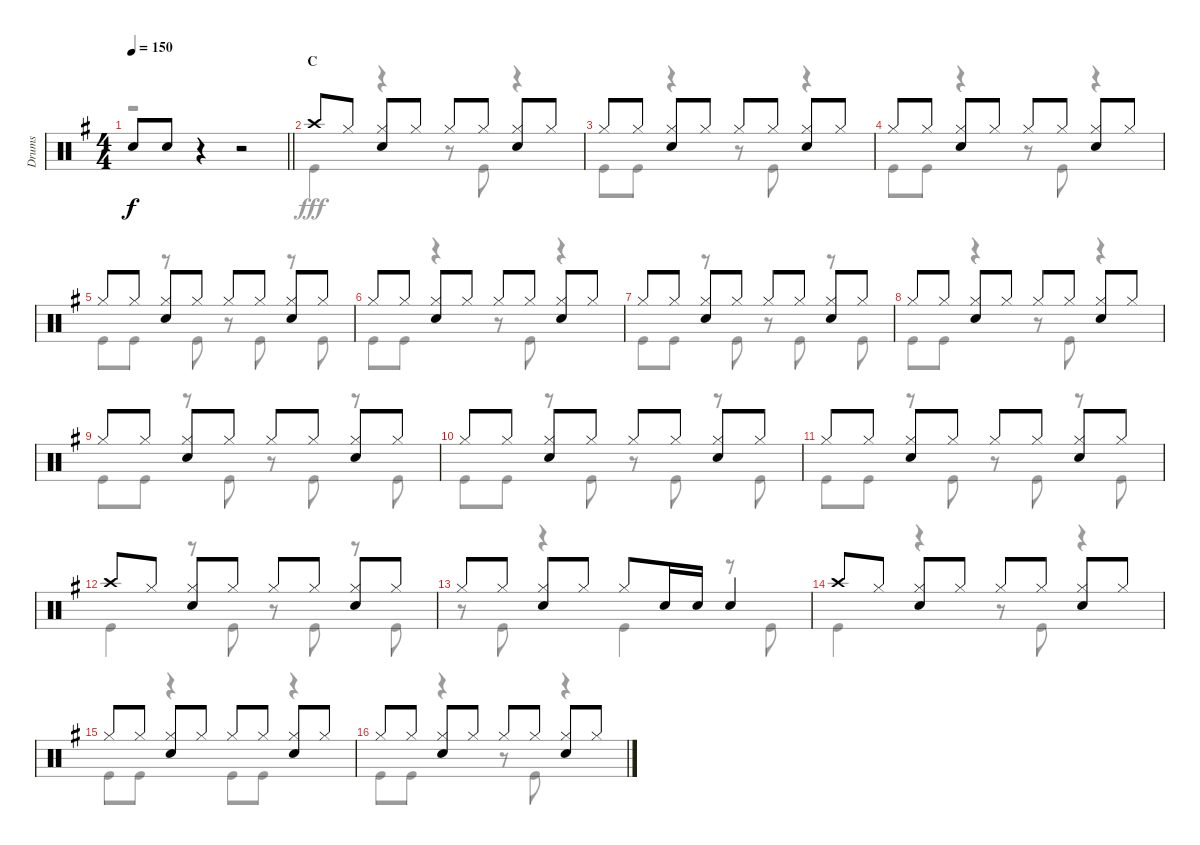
\track ("Drums" "Drums") {instrument percussion}
\staff {score}
\articulation defaults
\voice
\ts (4 4)
\tempo 150
\clef neutral
\barLineRight lightlight
\ks g "Snare (hit) 2".8{dy f} "Snare (hit) 2".8
r.4 r.2 |
\section ("" "C")
"Crash high (hit)".8 "Hi-Hat (closed)".8 ("Hi-Hat (closed)" "Snare (hit) 2").8 "Hi-Hat (closed)".8 "Hi-Hat (closed)".8 "Hi-Hat (closed)".8 ("Hi-Hat (closed)" "Snare (hit) 2").8 "Hi-Hat (closed)".8 |
"Hi-Hat (closed)".8 "Hi-Hat (closed)".8 ("Hi-Hat (closed)" "Snare (hit) 2").8 "Hi-Hat (closed)".8 "Hi-Hat (closed)".8 "Hi-Hat (closed)".8 ("Hi-Hat (closed)" "Snare (hit) 2").8 "Hi-Hat (closed)".8 |
"Hi-Hat (closed)".8 "Hi-Hat (closed)".8 ("Hi-Hat (closed)" "Snare (hit) 2").8 "Hi-Hat (closed)".8 "Hi-Hat (closed)".8 "Hi-Hat (closed)".8 ("Hi-Hat (closed)" "Snare (hit) 2").8 "Hi-Hat (closed)".8 |
"Hi-Hat (closed)".8 "Hi-Hat (closed)".8 ("Hi-Hat (closed)" "Snare (hit) 2").8 "Hi-Hat (closed)".8 "Hi-Hat (closed)".8 "Hi-Hat (closed)".8 ("Hi-Hat (closed)" "Snare (hit) 2").8 "Hi-Hat (closed)".8 |
"Hi-Hat (closed)".8 "Hi-Hat (closed)".8 ("Hi-Hat (closed)" "Snare (hit) 2").8 "Hi-Hat (closed)".8 "Hi-Hat (closed)".8 "Hi-Hat (closed)".8 ("Hi-Hat (closed)" "Snare (hit) 2").8 "Hi-Hat (closed)".8 |
"Hi-Hat (closed)".8 "Hi-Hat (closed)".8 ("Hi-Hat (closed)" "Snare (hit) 2").8 "Hi-Hat (closed)".8 "Hi-Hat (closed)".8 "Hi-Hat (closed)".8 ("Hi-Hat (closed)" "Snare (hit) 2").8 "Hi-Hat (closed)".8 |
"Hi-Hat (closed)".8 "Hi-Hat (closed)".8 ("Hi-Hat (closed)" "Snare (hit) 2").8 "Hi-Hat (closed)".8 "Hi-Hat (closed)".8 "Hi-Hat (closed)".8 ("Hi-Hat (closed)" "Snare (hit) 2").8 "Hi-Hat (closed)".8 |
"Hi-Hat (closed)".8 "Hi-Hat (closed)".8 ("Hi-Hat (closed)" "Snare (hit) 2").8 "Hi-Hat (closed)".8 "Hi-Hat (closed)".8 "Hi-Hat (closed)".8 ("Hi-Hat (closed)" "Snare (hit) 2").8 "Hi-Hat (closed)".8 |
"Hi-Hat (closed)".8 "Hi-Hat (closed)".8 ("Hi-Hat (closed)" "Snare (hit) 2").8 "Hi-Hat (closed)".8 "Hi-Hat (closed)".8 "Hi-Hat (closed)".8 ("Hi-Hat (closed)" "Snare (hit) 2").8 "Hi-Hat (closed)".8 |
"Hi-Hat (closed)".8 "Hi-Hat (closed)".8 ("Hi-Hat (closed)" "Snare (hit) 2").8 "Hi-Hat (closed)".8 "Hi-Hat (closed)".8 "Hi-Hat (closed)".8 ("Hi-Hat (closed)" "Snare (hit) 2").8 "Hi-Hat (closed)".8 |
"Crash high (hit)".8 "Hi-Hat (closed)".8 ("Hi-Hat (closed)" "Snare (hit) 2").8 "Hi-Hat (closed)".8 "Hi-Hat (closed)".8 "Hi-Hat (closed)".8 ("Hi-Hat (closed)" "Snare (hit) 2").8 "Hi-Hat (closed)".8 |
"Hi-Hat (closed)".8 "Hi-Hat (closed)".8 ("Hi-Hat (closed)" "Snare (hit) 2").8 "Hi-Hat (closed)".8 "Hi-Hat (closed)".8 "Snare (hit) 2".16 "Snare (hit) 2".16 "Snare (hit) 2".4 |
"Crash high (hit)".8 "Hi-Hat (closed)".8 ("Hi-Hat (closed)" "Snare (hit) 2").8 "Hi-Hat (closed)".8 "Hi-Hat (closed)".8 "Hi-Hat (closed)".8 ("Hi-Hat (closed)" "Snare (hit) 2").8 "Hi-Hat (closed)".8 |
"Hi-Hat (closed)".8 "Hi-Hat (closed)".8 ("Hi-Hat (closed)" "Snare (hit) 2").8 "Hi-Hat (closed)".8 "Hi-Hat (closed)".8 "Hi-Hat (closed)".8 ("Hi-Hat (closed)" "Snare (hit) 2").8 "Hi-Hat (closed)".8 |
"Hi-Hat (closed)".8 "Hi-Hat (closed)".8 ("Hi-Hat (closed)" "Snare (hit) 2").8 "Hi-Hat (closed)".8 "Hi-Hat (closed)".8 "Hi-Hat (closed)".8 ("Hi-Hat (closed)" "Snare (hit) 2").8 "Hi-Hat (closed)".8
\voice
\clef neutral
\ottava regular
\simile none
\barLineRight lightlight
\ks g
r.1{dy fff} |
"Kick (hit)".4 r.4 r.8 "Kick (hit)".8 r.4 |
"Kick (hit)".8 "Kick (hit)".8 r.4 r.8 "Kick (hit)".8 r.4 |
"Kick (hit)".8 "Kick (hit)".8 r.4 r.8 "Kick (hit)".8 r.4 |
"Kick (hit)".8 "Kick (hit)".8 r.8 "Kick (hit)".8 r.8 "Kick (hit)".8 r.8 "Kick (hit)".8 |
"Kick (hit)".8 "Kick (hit)".8 r.4 r.8 "Kick (hit)".8 r.4 |
"Kick (hit)".8 "Kick (hit)".8 r.8 "Kick (hit)".8 r.8 "Kick (hit)".8 r.8 "Kick (hit)".8 |
"Kick (hit)".8 "Kick (hit)".8 r.4 r.8 "Kick (hit)".8 r.4 |
"Kick (hit)".8 "Kick (hit)".8 r.8 "Kick (hit)".8 r.8 "Kick (hit)".8 r.8 "Kick (hit)".8 |
"Kick (hit)".8 "Kick (hit)".8 r.8 "Kick (hit)".8 r.8 "Kick (hit)".8 r.8 "Kick (hit)".8 |
"Kick (hit)".8 "Kick (hit)".8 r.8 "Kick (hit)".8 r.8 "Kick (hit)".8 r.8 "Kick (hit)".8 |
"Kick (hit)".4 r.8 "Kick (hit)".8 r.8 "Kick (hit)".8 r.8 "Kick (hit)".8 |
r.8 "Kick (hit)".8 r.4 "Kick (hit)".4 r.8 "Kick (hit)".8 |
"Kick (hit)".4 r.4 r.8 "Kick (hit)".8 r.4 |
"Kick (hit)".8 "Kick (hit)".8 r.4 "Kick (hit)".8 "Kick (hit)".8 r.4 |
"Kick (hit)".8 "Kick (hit)".8 r.4 r.8 "Kick (hit)".8 r.4
